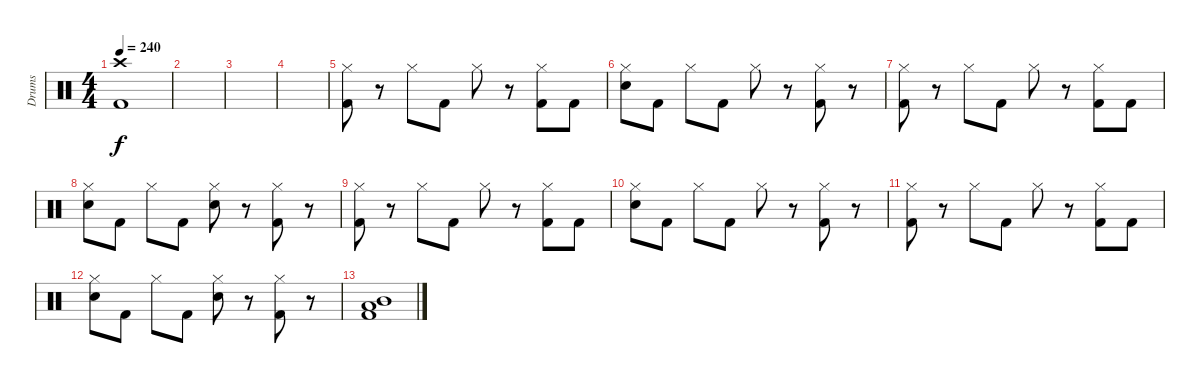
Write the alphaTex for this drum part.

\track ("Drums" "Drums") {instrument percussion}
\staff {score}
\articulation defaults
\ts (4 4)
\tempo 240
\clef neutral
\ks c
("Kick (hit) 2" "Crash high (hit)").1{dy f} |
|
|
|
("Kick (hit) 2" "Hi-Hat (closed)").8 r.8 "Hi-Hat (closed)".8 "Kick (hit) 2".8 "Hi-Hat (closed)".8 r.8 ("Kick (hit) 2" "Hi-Hat (closed)").8 "Kick (hit) 2".8 |
("Electric Snare (hit)" "Hi-Hat (closed)").8 "Kick (hit) 2".8 "Hi-Hat (closed)".8 "Kick (hit) 2".8 "Hi-Hat (closed)".8 r.8 ("Kick (hit) 2" "Hi-Hat (closed)").8 r.8 |
("Kick (hit) 2" "Hi-Hat (closed)").8 r.8 "Hi-Hat (closed)".8 "Kick (hit) 2".8 "Hi-Hat (closed)".8 r.8 ("Kick (hit) 2" "Hi-Hat (closed)").8 "Kick (hit) 2".8 |
("Electric Snare (hit)" "Hi-Hat (closed)").8 "Kick (hit) 2".8 "Hi-Hat (closed)".8 "Kick (hit) 2".8 ("Electric Snare (hit)" "Hi-Hat (closed)").8 r.8 ("Kick (hit) 2" "Hi-Hat (closed)").8 r.8 |
("Kick (hit) 2" "Hi-Hat (closed)").8 r.8 "Hi-Hat (closed)".8 "Kick (hit) 2".8 "Hi-Hat (closed)".8 r.8 ("Kick (hit) 2" "Hi-Hat (closed)").8 "Kick (hit) 2".8 |
("Electric Snare (hit)" "Hi-Hat (closed)").8 "Kick (hit) 2".8 "Hi-Hat (closed)".8 "Kick (hit) 2".8 "Hi-Hat (closed)".8 r.8 ("Kick (hit) 2" "Hi-Hat (closed)").8 r.8 |
("Kick (hit) 2" "Hi-Hat (closed)").8 r.8 "Hi-Hat (closed)".8 "Kick (hit) 2".8 "Hi-Hat (closed)".8 r.8 ("Kick (hit) 2" "Hi-Hat (closed)").8 "Kick (hit) 2".8 |
("Electric Snare (hit)" "Hi-Hat (closed)").8 "Kick (hit) 2".8 "Hi-Hat (closed)".8 "Kick (hit) 2".8 ("Electric Snare (hit)" "Hi-Hat (closed)").8 r.8 ("Kick (hit) 2" "Hi-Hat (closed)").8 r.8 |
("Kick (hit) 2" "Low Tom (hit)" "Mid Tom (hit)").1
